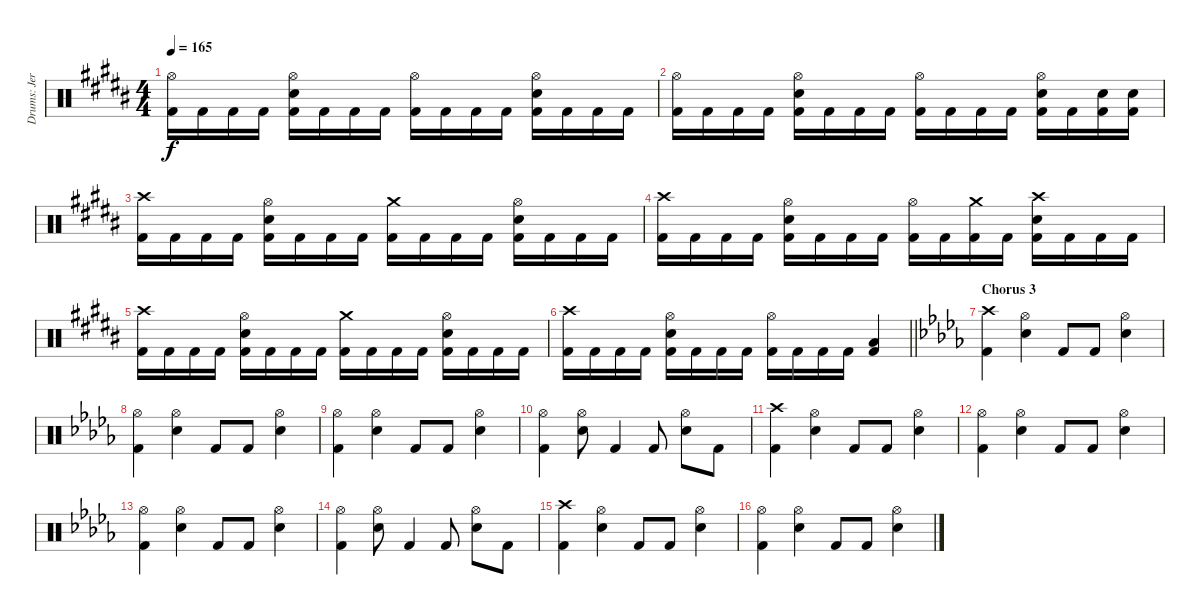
\track ("Drums: Jere Luokkamäki" "Drums: Jer") {instrument percussion}
\staff {score}
\articulation defaults
\ts (4 4)
\tempo 165
\clef neutral
\ks g#minor
("Hi-Hat (open)" "Kick (hit) 2").16{dy f} "Kick (hit) 2".16 "Kick (hit) 2".16 "Kick (hit) 2".16 ("Hi-Hat (open)" "Electric Snare (hit)" "Kick (hit) 2").16 "Kick (hit) 2".16 "Kick (hit) 2".16 "Kick (hit) 2".16 ("Hi-Hat (open)" "Kick (hit) 2").16 "Kick (hit) 2".16 "Kick (hit) 2".16 "Kick (hit) 2".16 ("Hi-Hat (open)" "Electric Snare (hit)" "Kick (hit) 2").16 "Kick (hit) 2".16 "Kick (hit) 2".16 "Kick (hit) 2".16 |
("Hi-Hat (open)" "Kick (hit) 2").16 "Kick (hit) 2".16 "Kick (hit) 2".16 "Kick (hit) 2".16 ("Hi-Hat (open)" "Electric Snare (hit)" "Kick (hit) 2").16 "Kick (hit) 2".16 "Kick (hit) 2".16 "Kick (hit) 2".16 ("Hi-Hat (open)" "Kick (hit) 2").16 "Kick (hit) 2".16 "Kick (hit) 2".16 "Kick (hit) 2".16 ("Hi-Hat (open)" "Electric Snare (hit)" "Kick (hit) 2").16 "Kick (hit) 2".16 ("Electric Snare (hit)" "Kick (hit) 2").16 ("Electric Snare (hit)" "Kick (hit) 2").16 |
("Crash high (hit)" "Kick (hit) 2").16 "Kick (hit) 2".16 "Kick (hit) 2".16 "Kick (hit) 2".16 ("Hi-Hat (open)" "Electric Snare (hit)" "Kick (hit) 2").16 "Kick (hit) 2".16 "Kick (hit) 2".16 "Kick (hit) 2".16 ("Crash medium (hit)" "Kick (hit) 2").16 "Kick (hit) 2".16 "Kick (hit) 2".16 "Kick (hit) 2".16 ("Hi-Hat (open)" "Electric Snare (hit)" "Kick (hit) 2").16 "Kick (hit) 2".16 "Kick (hit) 2".16 "Kick (hit) 2".16 |
("Crash high (hit)" "Kick (hit) 2").16 "Kick (hit) 2".16 "Kick (hit) 2".16 "Kick (hit) 2".16 ("Hi-Hat (open)" "Electric Snare (hit)" "Kick (hit) 2").16 "Kick (hit) 2".16 "Kick (hit) 2".16 "Kick (hit) 2".16 ("Hi-Hat (open)" "Kick (hit) 2").16 "Kick (hit) 2".16 ("Crash medium (hit)" "Kick (hit) 2").16 "Kick (hit) 2".16 ("Crash high (hit)" "Electric Snare (hit)" "Kick (hit) 2").16 "Kick (hit) 2".16 "Kick (hit) 2".16 "Kick (hit) 2".16 |
("Crash high (hit)" "Kick (hit) 2").16 "Kick (hit) 2".16 "Kick (hit) 2".16 "Kick (hit) 2".16 ("Hi-Hat (open)" "Electric Snare (hit)" "Kick (hit) 2").16 "Kick (hit) 2".16 "Kick (hit) 2".16 "Kick (hit) 2".16 ("Crash medium (hit)" "Kick (hit) 2").16 "Kick (hit) 2".16 "Kick (hit) 2".16 "Kick (hit) 2".16 ("Hi-Hat (open)" "Electric Snare (hit)" "Kick (hit) 2").16 "Kick (hit) 2".16 "Kick (hit) 2".16 "Kick (hit) 2".16 |
\barLineRight lightlight
("Crash high (hit)" "Kick (hit) 2").16 "Kick (hit) 2".16 "Kick (hit) 2".16 "Kick (hit) 2".16 ("Hi-Hat (open)" "Electric Snare (hit)" "Kick (hit) 2").16 "Kick (hit) 2".16 "Kick (hit) 2".16 "Kick (hit) 2".16 ("Hi-Hat (open)" "Kick (hit) 2").16 "Kick (hit) 2".16 "Kick (hit) 2".16 "Kick (hit) 2".16 ("Low Tom (hit)" "Kick (hit) 2").4 |
\section ("" "Chorus 3")
\ks bbminor
("Crash high (hit)" "Kick (hit) 2").4 ("Hi-Hat (open)" "Electric Snare (hit)").4 "Kick (hit) 2".8 "Kick (hit) 2".8 ("Hi-Hat (open)" "Electric Snare (hit)").4 |
("Hi-Hat (open)" "Kick (hit) 2").4 ("Hi-Hat (open)" "Electric Snare (hit)").4 "Kick (hit) 2".8 "Kick (hit) 2".8 ("Hi-Hat (open)" "Electric Snare (hit)").4 |
("Hi-Hat (open)" "Kick (hit) 2").4 ("Hi-Hat (open)" "Electric Snare (hit)").4 "Kick (hit) 2".8 "Kick (hit) 2".8 ("Hi-Hat (open)" "Electric Snare (hit)").4 |
("Hi-Hat (open)" "Kick (hit) 2").4 ("Hi-Hat (open)" "Electric Snare (hit)").8 "Kick (hit) 2".4 "Kick (hit) 2".8 ("Hi-Hat (open)" "Electric Snare (hit)").8 "Kick (hit) 2".8 |
("Crash high (hit)" "Kick (hit) 2").4 ("Hi-Hat (open)" "Electric Snare (hit)").4 "Kick (hit) 2".8 "Kick (hit) 2".8 ("Hi-Hat (open)" "Electric Snare (hit)").4 |
("Hi-Hat (open)" "Kick (hit) 2").4 ("Hi-Hat (open)" "Electric Snare (hit)").4 "Kick (hit) 2".8 "Kick (hit) 2".8 ("Hi-Hat (open)" "Electric Snare (hit)").4 |
("Hi-Hat (open)" "Kick (hit) 2").4 ("Hi-Hat (open)" "Electric Snare (hit)").4 "Kick (hit) 2".8 "Kick (hit) 2".8 ("Hi-Hat (open)" "Electric Snare (hit)").4 |
("Hi-Hat (open)" "Kick (hit) 2").4 ("Hi-Hat (open)" "Electric Snare (hit)").8 "Kick (hit) 2".4 "Kick (hit) 2".8 ("Hi-Hat (open)" "Electric Snare (hit)").8 "Kick (hit) 2".8 |
("Crash high (hit)" "Kick (hit) 2").4 ("Hi-Hat (open)" "Electric Snare (hit)").4 "Kick (hit) 2".8 "Kick (hit) 2".8 ("Hi-Hat (open)" "Electric Snare (hit)").4 |
("Hi-Hat (open)" "Kick (hit) 2").4 ("Hi-Hat (open)" "Electric Snare (hit)").4 "Kick (hit) 2".8 "Kick (hit) 2".8 ("Hi-Hat (open)" "Electric Snare (hit)").4
